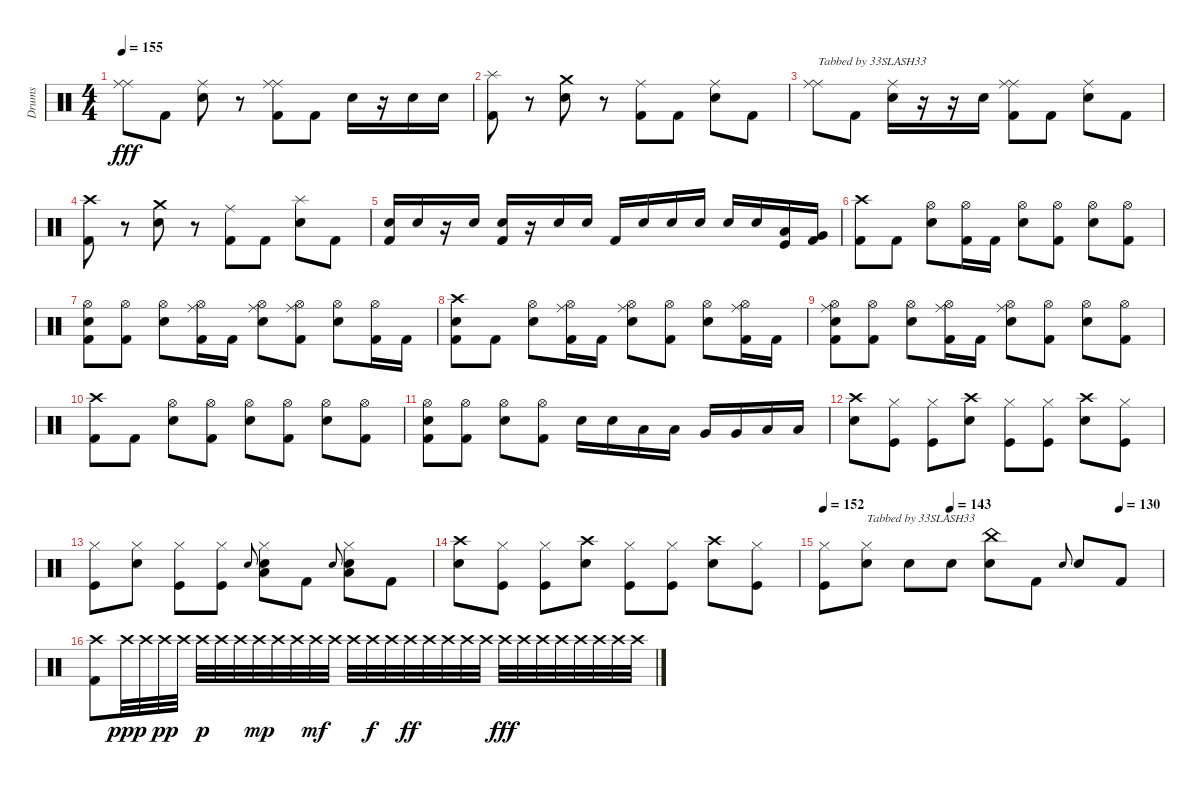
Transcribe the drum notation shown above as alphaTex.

\track ("Drums" "Drums") {instrument percussion}
\staff {score}
\articulation defaults
\ts (4 4)
\tempo 155
\clef neutral
\ks c
("Ride (middle)" "Ride (middle)").8{dy fff} "Kick (hit) 2".8 ("Ride (middle)" "Snare (hit) 2").8 r.8 ("Ride (middle)" "Ride (middle)" "Kick (hit) 2").8 "Kick (hit) 2".8 "Snare (hit) 2".16 r.16 "Snare (hit) 2".16 "Snare (hit) 2".16 |
("Splash (hit)" "Kick (hit) 2").8 r.8 ("Crash medium (hit)" "Snare (hit) 2").8 r.8 ("Ride (middle)" "Kick (hit) 2").8 "Kick (hit) 2".8 ("Ride (middle)" "Snare (hit) 2").8 "Kick (hit) 2".8 |
("Ride (middle)" "Ride (middle)").8{txt "Tabbed by 33SLASH33"} "Kick (hit) 2".8 ("Ride (middle)" "Snare (hit) 2").16 r.16 r.16 "Snare (hit) 2".16 ("Ride (middle)" "Ride (middle)" "Kick (hit) 2").8 "Kick (hit) 2".8 ("Ride (middle)" "Snare (hit) 2").8 "Kick (hit) 2".8 |
("Crash high (hit)" "Kick (hit) 2").8 r.8 ("Crash medium (hit)" "Snare (hit) 2").8 r.8 ("Ride (middle)" "Kick (hit) 2").8 "Kick (hit) 2".8 ("Splash (hit)" "Snare (hit) 2").8 "Kick (hit) 2".8 |
("Snare (hit) 2" "Kick (hit) 2").16 "Snare (hit) 2".16 r.16 "Snare (hit) 2".16 ("Snare (hit) 2" "Kick (hit) 2").16 r.16 "Snare (hit) 2".16 "Snare (hit) 2".16 "Kick (hit) 2".16 "Snare (hit) 2".16 "Snare (hit) 2".16 "Snare (hit) 2".16 "Snare (hit) 2".16 "Snare (hit) 2".16 ("Low Tom (hit)" "Kick (hit)").16 ("Very Low Tom (hit)" "Kick (hit) 2").16 |
("Crash high (hit)" "Kick (hit) 2").8 "Kick (hit) 2".8 ("Hi-Hat (open)" "Snare (hit) 2").8 ("Hi-Hat (open)" "Kick (hit) 2").16 "Kick (hit) 2".16 ("Hi-Hat (open)" "Snare (hit) 2").8 ("Hi-Hat (open)" "Kick (hit) 2").8 ("Hi-Hat (open)" "Snare (hit) 2").8 ("Hi-Hat (open)" "Kick (hit) 2").8 |
("Hi-Hat (open)" "Snare (hit) 2" "Kick (hit) 2").8 ("Hi-Hat (open)" "Kick (hit) 2").8 ("Hi-Hat (open)" "Snare (hit) 2").8 ("Hi-Hat (open)" "Ride (middle)" "Kick (hit) 2").16 "Kick (hit) 2".16 ("Hi-Hat (open)" "Snare (hit) 2" "Ride (middle)").8 ("Hi-Hat (open)" "Ride (middle)" "Kick (hit) 2").8 ("Hi-Hat (open)" "Snare (hit) 2").8 ("Hi-Hat (open)" "Kick (hit) 2").16 "Kick (hit) 2".16 |
("Crash high (hit)" "Snare (hit) 2" "Kick (hit) 2").8 "Kick (hit) 2".8 ("Hi-Hat (open)" "Snare (hit) 2").8 ("Hi-Hat (open)" "Ride (middle)" "Kick (hit) 2").16 "Kick (hit) 2".16 ("Hi-Hat (open)" "Snare (hit) 2" "Ride (middle)").8 ("Hi-Hat (open)" "Kick (hit) 2").8 ("Hi-Hat (open)" "Snare (hit) 2").8 ("Hi-Hat (open)" "Ride (middle)" "Kick (hit) 2").16 "Kick (hit) 2".16 |
("Hi-Hat (open)" "Snare (hit) 2" "Ride (middle)" "Kick (hit) 2").8 ("Hi-Hat (open)" "Kick (hit) 2").8 ("Hi-Hat (open)" "Snare (hit) 2").8 ("Hi-Hat (open)" "Ride (middle)" "Kick (hit) 2").16 "Kick (hit) 2".16 ("Hi-Hat (open)" "Snare (hit) 2" "Ride (middle)").8 ("Hi-Hat (open)" "Kick (hit) 2").8 ("Hi-Hat (open)" "Snare (hit) 2").8 ("Hi-Hat (open)" "Kick (hit) 2").8 |
("Crash high (hit)" "Kick (hit) 2").8 "Kick (hit) 2".8 ("Hi-Hat (open)" "Snare (hit) 2").8 ("Hi-Hat (open)" "Kick (hit) 2").8 ("Hi-Hat (open)" "Snare (hit) 2").8 ("Hi-Hat (open)" "Kick (hit) 2").8 ("Hi-Hat (open)" "Snare (hit) 2").8 ("Hi-Hat (open)" "Kick (hit) 2").8 |
("Hi-Hat (open)" "Snare (hit) 2" "Kick (hit) 2").8 ("Hi-Hat (open)" "Kick (hit) 2").8 ("Hi-Hat (open)" "Snare (hit) 2").8 ("Hi-Hat (open)" "Kick (hit) 2").8 "Snare (hit) 2".16 "Snare (hit) 2".16 "Low Tom (hit)".16 "Low Tom (hit)".16 "Very Low Tom (hit)".16 "Very Low Tom (hit)".16 "Low Floor Tom (hit)".16 "Low Floor Tom (hit)".16 |
("Crash high (hit)" "Snare (hit) 2").8 ("Hi-Hat (closed)" "Kick (hit)").8 ("Hi-Hat (closed)" "Kick (hit)").8 ("Crash high (hit)" "Snare (hit) 2").8 ("Hi-Hat (closed)" "Kick (hit)").8 ("Hi-Hat (closed)" "Kick (hit)").8 ("Crash high (hit)" "Snare (hit) 2").8 ("Hi-Hat (closed)" "Kick (hit)").8 |
("Hi-Hat (closed)" "Kick (hit)").8 ("Hi-Hat (closed)" "Snare (hit) 2").8 ("Hi-Hat (closed)" "Kick (hit)").8 ("Hi-Hat (closed)" "Kick (hit)").8 "Snare (hit) 2".8{gr onbeat} ("Hi-Hat (closed)" "Snare (hit) 2" "Low Floor Tom (hit)").8 "Kick (hit) 2".8 "Snare (hit) 2".8{gr onbeat} ("Hi-Hat (closed)" "Snare (hit) 2" "Low Floor Tom (hit)").8 "Kick (hit) 2".8 |
("Crash high (hit)" "Snare (hit) 2").8 ("Hi-Hat (closed)" "Kick (hit)").8 ("Hi-Hat (closed)" "Kick (hit)").8 ("Crash high (hit)" "Snare (hit) 2").8 ("Hi-Hat (closed)" "Kick (hit)").8 ("Hi-Hat (closed)" "Kick (hit)").8 ("Crash high (hit)" "Snare (hit) 2").8 ("Hi-Hat (closed)" "Kick (hit)").8 |
\tempo 152
\tempo (143 0.375)
\tempo (130 0.875)
("Hi-Hat (closed)" "Kick (hit)").8 ("Hi-Hat (closed)" "Snare (hit) 2").8{txt "Tabbed by 33SLASH33"} "Snare (hit) 2".8 "Snare (hit) 2".8 ("China (hit)" "Snare (hit) 2").8 "Kick (hit) 2".8 "Snare (hit) 2".8{gr onbeat} "Snare (hit) 2".8 "Kick (hit) 2".8 |
("Crash high (hit)" "Kick (hit) 2").8 "Crash high (hit)".32{dy ppp} "Crash high (hit)".32 "Crash high (hit)".32{dy pp} "Crash high (hit)".32 "Crash high (hit)".32{dy p} "Crash high (hit)".32 "Crash high (hit)".32 "Crash high (hit)".32{dy mp} "Crash high (hit)".32 "Crash high (hit)".32 "Crash high (hit)".32{dy mf} "Crash high (hit)".32 "Crash high (hit)".32 "Crash high (hit)".32{dy f} "Crash high (hit)".32 "Crash high (hit)".32{dy ff} "Crash high (hit)".32 "Crash high (hit)".32 "Crash high (hit)".32 "Crash high (hit)".32 "Crash high (hit)".32{dy fff} "Crash high (hit)".32 "Crash high (hit)".32 "Crash high (hit)".32 "Crash high (hit)".32 "Crash high (hit)".32 "Crash high (hit)".32 "Crash high (hit)".32
